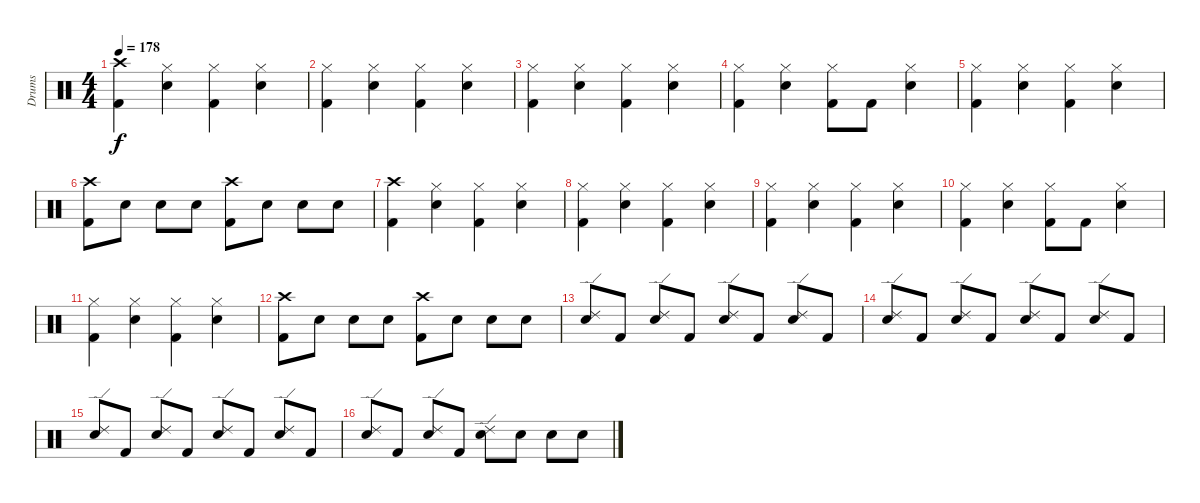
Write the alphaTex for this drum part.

\track ("Drums" "Drums") {instrument percussion}
\staff {score}
\articulation defaults
\ts (4 4)
\tempo 178
\clef neutral
\ks c
("Crash high (hit)" "Kick (hit) 2").4{dy f} ("Hi-Hat (closed)" "Electric Snare (hit)").4 ("Hi-Hat (closed)" "Kick (hit) 2").4 ("Hi-Hat (closed)" "Electric Snare (hit)").4 |
("Hi-Hat (closed)" "Kick (hit) 2").4 ("Hi-Hat (closed)" "Electric Snare (hit)").4 ("Hi-Hat (closed)" "Kick (hit) 2").4 ("Hi-Hat (closed)" "Electric Snare (hit)").4 |
("Hi-Hat (closed)" "Kick (hit) 2").4 ("Hi-Hat (closed)" "Electric Snare (hit)").4 ("Hi-Hat (closed)" "Kick (hit) 2").4 ("Hi-Hat (closed)" "Electric Snare (hit)").4 |
("Hi-Hat (closed)" "Kick (hit) 2").4 ("Hi-Hat (closed)" "Electric Snare (hit)").4 ("Hi-Hat (closed)" "Kick (hit) 2").8 "Kick (hit) 2".8 ("Hi-Hat (closed)" "Electric Snare (hit)").4 |
("Hi-Hat (closed)" "Kick (hit) 2").4 ("Hi-Hat (closed)" "Electric Snare (hit)").4 ("Hi-Hat (closed)" "Kick (hit) 2").4 ("Hi-Hat (closed)" "Electric Snare (hit)").4 |
("Crash high (hit)" "Kick (hit) 2").8 "Electric Snare (hit)".8 "Electric Snare (hit)".8 "Electric Snare (hit)".8 ("Crash high (hit)" "Kick (hit) 2").8 "Electric Snare (hit)".8 "Electric Snare (hit)".8 "Electric Snare (hit)".8 |
("Crash high (hit)" "Kick (hit) 2").4 ("Hi-Hat (closed)" "Electric Snare (hit)").4 ("Hi-Hat (closed)" "Kick (hit) 2").4 ("Hi-Hat (closed)" "Electric Snare (hit)").4 |
("Hi-Hat (closed)" "Kick (hit) 2").4 ("Hi-Hat (closed)" "Electric Snare (hit)").4 ("Hi-Hat (closed)" "Kick (hit) 2").4 ("Hi-Hat (closed)" "Electric Snare (hit)").4 |
("Hi-Hat (closed)" "Kick (hit) 2").4 ("Hi-Hat (closed)" "Electric Snare (hit)").4 ("Hi-Hat (closed)" "Kick (hit) 2").4 ("Hi-Hat (closed)" "Electric Snare (hit)").4 |
("Hi-Hat (closed)" "Kick (hit) 2").4 ("Hi-Hat (closed)" "Electric Snare (hit)").4 ("Hi-Hat (closed)" "Kick (hit) 2").8 "Kick (hit) 2".8 ("Hi-Hat (closed)" "Electric Snare (hit)").4 |
("Hi-Hat (closed)" "Kick (hit) 2").4 ("Hi-Hat (closed)" "Electric Snare (hit)").4 ("Hi-Hat (closed)" "Kick (hit) 2").4 ("Hi-Hat (closed)" "Electric Snare (hit)").4 |
("Crash high (hit)" "Kick (hit) 2").8 "Electric Snare (hit)".8 "Electric Snare (hit)".8 "Electric Snare (hit)".8 ("Crash high (hit)" "Kick (hit) 2").8 "Electric Snare (hit)".8 "Electric Snare (hit)".8 "Electric Snare (hit)".8 |
("Ride (edge) 2" "Electric Snare (hit)").8 "Kick (hit) 2".8 ("Ride (edge) 2" "Electric Snare (hit)").8 "Kick (hit) 2".8 ("Ride (edge) 2" "Electric Snare (hit)").8 "Kick (hit) 2".8 ("Ride (edge) 2" "Electric Snare (hit)").8 "Kick (hit) 2".8 |
("Ride (edge) 2" "Electric Snare (hit)").8 "Kick (hit) 2".8 ("Ride (edge) 2" "Electric Snare (hit)").8 "Kick (hit) 2".8 ("Ride (edge) 2" "Electric Snare (hit)").8 "Kick (hit) 2".8 ("Ride (edge) 2" "Electric Snare (hit)").8 "Kick (hit) 2".8 |
("Ride (edge) 2" "Electric Snare (hit)").8 "Kick (hit) 2".8 ("Ride (edge) 2" "Electric Snare (hit)").8 "Kick (hit) 2".8 ("Ride (edge) 2" "Electric Snare (hit)").8 "Kick (hit) 2".8 ("Ride (edge) 2" "Electric Snare (hit)").8 "Kick (hit) 2".8 |
("Ride (edge) 2" "Electric Snare (hit)").8 "Kick (hit) 2".8 ("Ride (edge) 2" "Electric Snare (hit)").8 "Kick (hit) 2".8 ("Ride (edge) 2" "Electric Snare (hit)").8 "Electric Snare (hit)".8 "Electric Snare (hit)".8 "Electric Snare (hit)".8
